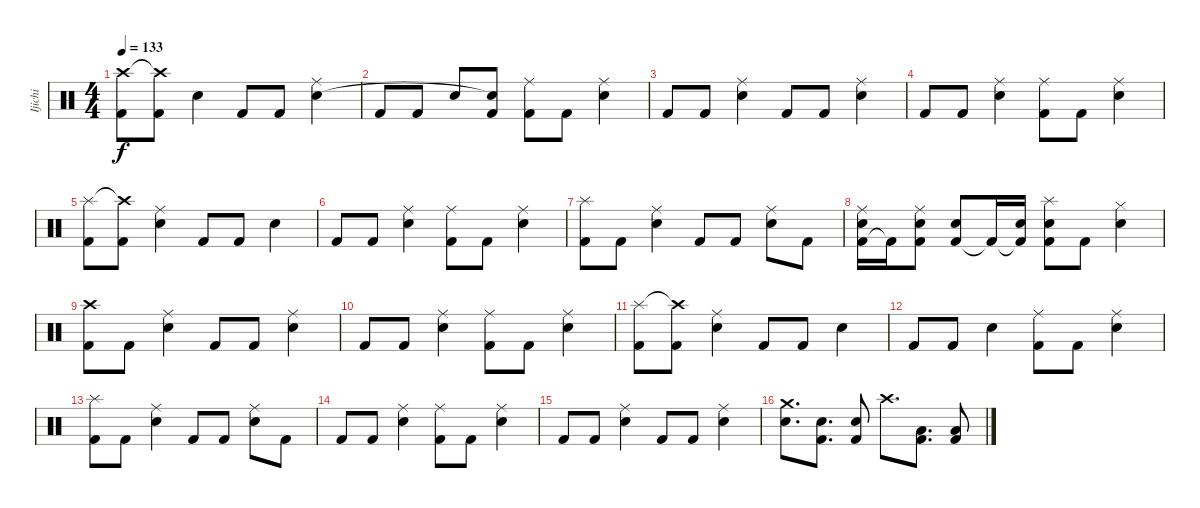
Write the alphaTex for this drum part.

\track ("Ijichi" "Ijichi") {instrument percussion}
\staff {score}
\articulation defaults
\ts (4 4)
\tempo 133
\clef neutral
\ks c
("Kick (hit) 2" "Crash high (hit)").8{dy f} ("Kick (hit) 2" "Crash high (hit)"{t}).8 "Electric Snare (hit)".4 "Kick (hit) 2".8 "Kick (hit) 2".8 ("Ride (middle)" "Electric Snare (hit)").4 |
"Kick (hit) 2".8 "Kick (hit) 2".8 "Electric Snare (hit)".8 ("Kick (hit) 2" "Electric Snare (hit)"{t}).8 ("Kick (hit) 2" "Ride (middle)").8 "Kick (hit) 2".8 ("Ride (middle)" "Electric Snare (hit)").4 |
"Kick (hit) 2".8 "Kick (hit) 2".8 ("Ride (middle)" "Electric Snare (hit)").4 "Kick (hit) 2".8 "Kick (hit) 2".8 ("Ride (middle)" "Electric Snare (hit)").4 |
"Kick (hit) 2".8 "Kick (hit) 2".8 ("Ride (middle)" "Electric Snare (hit)").4 ("Kick (hit) 2" "Ride (middle)").8 "Kick (hit) 2".8 ("Ride (middle)" "Electric Snare (hit)").4 |
("Kick (hit) 2" "Splash (hit)").8 ("Kick (hit) 2" "Crash high (hit)"{t}).8 ("Ride (middle)" "Electric Snare (hit)").4 "Kick (hit) 2".8 "Kick (hit) 2".8 "Electric Snare (hit)".4 |
"Kick (hit) 2".8 "Kick (hit) 2".8 ("Ride (middle)" "Electric Snare (hit)").4 ("Kick (hit) 2" "Ride (middle)").8 "Kick (hit) 2".8 ("Ride (middle)" "Electric Snare (hit)").4 |
("Kick (hit) 2" "Splash (hit)").8 "Kick (hit) 2".8 ("Ride (middle)" "Electric Snare (hit)").4 "Kick (hit) 2".8 "Kick (hit) 2".8 ("Ride (middle)" "Electric Snare (hit)").8 "Kick (hit) 2".8 |
("Kick (hit) 2" "Ride (middle)" "Electric Snare (hit)").16 "Kick (hit) 2"{t}.16 ("Kick (hit) 2" "Ride (middle)" "Electric Snare (hit)").8 ("Kick (hit) 2" "Electric Snare (hit)").8 "Kick (hit) 2"{t}.16 ("Kick (hit) 2"{t} "Electric Snare (hit)").16 ("Kick (hit) 2" "Splash (hit)" "Electric Snare (hit)").8 "Kick (hit) 2".8 ("Hi-Hat (closed)" "Electric Snare (hit)").4 |
("Kick (hit) 2" "Crash high (hit)").8 "Kick (hit) 2".8 ("Ride (middle)" "Electric Snare (hit)").4 "Kick (hit) 2".8 "Kick (hit) 2".8 ("Ride (middle)" "Electric Snare (hit)").4 |
"Kick (hit) 2".8 "Kick (hit) 2".8 ("Ride (middle)" "Electric Snare (hit)").4 ("Kick (hit) 2" "Ride (middle)").8 "Kick (hit) 2".8 ("Ride (middle)" "Electric Snare (hit)").4 |
("Kick (hit) 2" "Splash (hit)").8 ("Kick (hit) 2" "Crash high (hit)"{t}).8 ("Ride (middle)" "Electric Snare (hit)").4 "Kick (hit) 2".8 "Kick (hit) 2".8 "Electric Snare (hit)".4 |
"Kick (hit) 2".8 "Kick (hit) 2".8 "Electric Snare (hit)".4 ("Kick (hit) 2" "Ride (middle)").8 "Kick (hit) 2".8 ("Ride (middle)" "Electric Snare (hit)").4 |
("Kick (hit) 2" "Splash (hit)").8 "Kick (hit) 2".8 ("Ride (middle)" "Electric Snare (hit)").4 "Kick (hit) 2".8 "Kick (hit) 2".8 ("Ride (middle)" "Electric Snare (hit)").8 "Kick (hit) 2".8 |
"Kick (hit) 2".8 "Kick (hit) 2".8 ("Ride (middle)" "Electric Snare (hit)").4 ("Kick (hit) 2" "Ride (middle)").8 "Kick (hit) 2".8 ("Ride (middle)" "Electric Snare (hit)").4 |
"Kick (hit) 2".8 "Kick (hit) 2".8 ("Ride (middle)" "Electric Snare (hit)").4 "Kick (hit) 2".8 "Kick (hit) 2".8 ("Ride (middle)" "Electric Snare (hit)").4 |
("Crash medium (hit)" "Electric Snare (hit)").8{d} ("Kick (hit) 2" "Electric Snare (hit)").8{d} ("Kick (hit) 2" "Electric Snare (hit)").8 "Crash high (hit)".8{d} ("Kick (hit) 2" "Low Floor Tom (hit)").8{d} ("Kick (hit) 2" "Low Floor Tom (hit)").8
